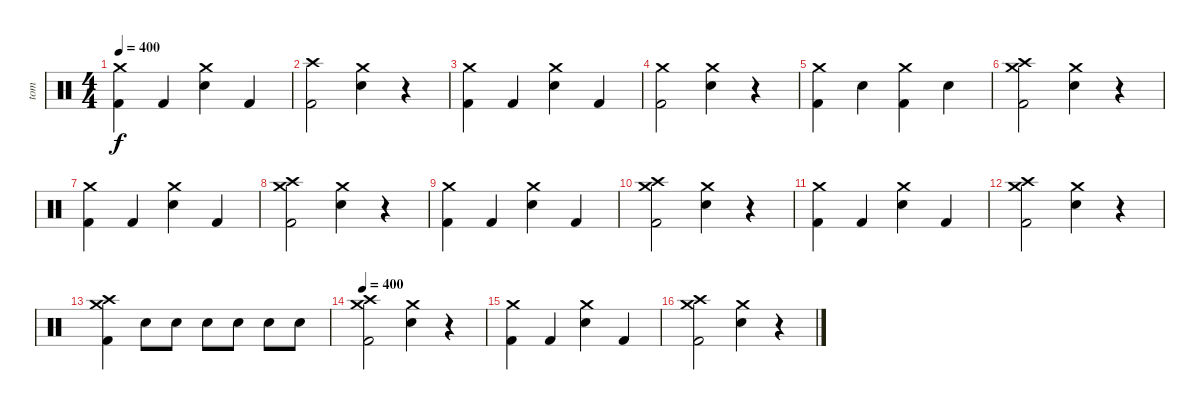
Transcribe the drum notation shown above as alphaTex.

\track ("tom" "tom") {instrument percussion}
\staff {score}
\articulation defaults
\ts (4 4)
\tempo 400
\clef neutral
\ks c
("Crash medium (hit)" "Kick (hit) 2").4{dy f} "Kick (hit) 2".4 ("Crash medium (hit)" "Electric Snare (hit)").4 "Kick (hit) 2".4 |
("Crash high (hit)" "Kick (hit) 2").2 ("Crash medium (hit)" "Electric Snare (hit)").4 r.4 |
("Crash medium (hit)" "Kick (hit) 2").4 "Kick (hit) 2".4 ("Crash medium (hit)" "Electric Snare (hit)").4 "Kick (hit) 2".4 |
("Crash medium (hit)" "Kick (hit) 2").2 ("Crash medium (hit)" "Electric Snare (hit)").4 r.4 |
("Crash medium (hit)" "Kick (hit) 2").4 "Electric Snare (hit)".4 ("Crash medium (hit)" "Kick (hit) 2").4 "Electric Snare (hit)".4 |
("Crash high (hit)" "Crash medium (hit)" "Kick (hit) 2").2 ("Crash medium (hit)" "Electric Snare (hit)").4 r.4 |
("Crash medium (hit)" "Kick (hit) 2").4 "Kick (hit) 2".4 ("Crash medium (hit)" "Electric Snare (hit)").4 "Kick (hit) 2".4 |
("Crash high (hit)" "Crash medium (hit)" "Kick (hit) 2").2 ("Crash medium (hit)" "Electric Snare (hit)").4 r.4 |
("Crash medium (hit)" "Kick (hit) 2").4 "Kick (hit) 2".4 ("Crash medium (hit)" "Electric Snare (hit)").4 "Kick (hit) 2".4 |
("Crash high (hit)" "Crash medium (hit)" "Kick (hit) 2").2 ("Crash medium (hit)" "Electric Snare (hit)").4 r.4 |
("Crash medium (hit)" "Kick (hit) 2").4 "Kick (hit) 2".4 ("Crash medium (hit)" "Electric Snare (hit)").4 "Kick (hit) 2".4 |
("Crash high (hit)" "Crash medium (hit)" "Kick (hit) 2").2 ("Crash medium (hit)" "Electric Snare (hit)").4 r.4 |
("Crash high (hit)" "Crash medium (hit)" "Kick (hit) 2").4 "Electric Snare (hit)".8 "Electric Snare (hit)".8 "Electric Snare (hit)".8 "Electric Snare (hit)".8 "Electric Snare (hit)".8 "Electric Snare (hit)".8 |
\tempo 400
("Crash high (hit)" "Crash medium (hit)" "Kick (hit) 2").2 ("Crash medium (hit)" "Electric Snare (hit)").4 r.4 |
("Crash medium (hit)" "Kick (hit) 2").4 "Kick (hit) 2".4 ("Crash medium (hit)" "Electric Snare (hit)").4 "Kick (hit) 2".4 |
("Crash high (hit)" "Crash medium (hit)" "Kick (hit) 2").2 ("Crash medium (hit)" "Electric Snare (hit)").4 r.4
